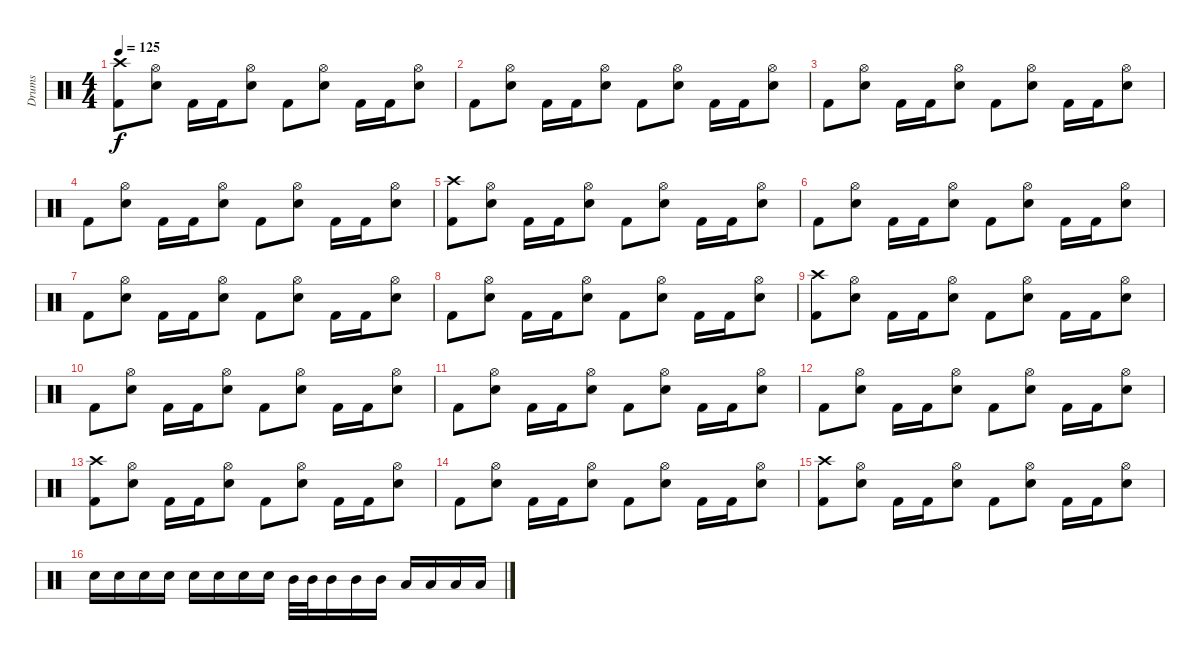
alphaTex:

\track ("Drums" "Drums") {instrument percussion}
\staff {score}
\articulation defaults
\ts (4 4)
\tempo 125
\clef neutral
\ks c
("Crash high (hit)" "Kick (hit) 2").8{dy f} ("Hi-Hat (open)" "Electric Snare (hit)").8 "Kick (hit) 2".16 "Kick (hit) 2".16 ("Hi-Hat (open)" "Electric Snare (hit)").8 "Kick (hit) 2".8 ("Hi-Hat (open)" "Electric Snare (hit)").8 "Kick (hit) 2".16 "Kick (hit) 2".16 ("Hi-Hat (open)" "Electric Snare (hit)").8 |
"Kick (hit) 2".8 ("Hi-Hat (open)" "Electric Snare (hit)").8 "Kick (hit) 2".16 "Kick (hit) 2".16 ("Hi-Hat (open)" "Electric Snare (hit)").8 "Kick (hit) 2".8 ("Hi-Hat (open)" "Electric Snare (hit)").8 "Kick (hit) 2".16 "Kick (hit) 2".16 ("Hi-Hat (open)" "Electric Snare (hit)").8 |
"Kick (hit) 2".8 ("Hi-Hat (open)" "Electric Snare (hit)").8 "Kick (hit) 2".16 "Kick (hit) 2".16 ("Hi-Hat (open)" "Electric Snare (hit)").8 "Kick (hit) 2".8 ("Hi-Hat (open)" "Electric Snare (hit)").8 "Kick (hit) 2".16 "Kick (hit) 2".16 ("Hi-Hat (open)" "Electric Snare (hit)").8 |
"Kick (hit) 2".8 ("Hi-Hat (open)" "Electric Snare (hit)").8 "Kick (hit) 2".16 "Kick (hit) 2".16 ("Hi-Hat (open)" "Electric Snare (hit)").8 "Kick (hit) 2".8 ("Hi-Hat (open)" "Electric Snare (hit)").8 "Kick (hit) 2".16 "Kick (hit) 2".16 ("Hi-Hat (open)" "Electric Snare (hit)").8 |
("Crash high (hit)" "Kick (hit) 2").8 ("Hi-Hat (open)" "Electric Snare (hit)").8 "Kick (hit) 2".16 "Kick (hit) 2".16 ("Hi-Hat (open)" "Electric Snare (hit)").8 "Kick (hit) 2".8 ("Hi-Hat (open)" "Electric Snare (hit)").8 "Kick (hit) 2".16 "Kick (hit) 2".16 ("Hi-Hat (open)" "Electric Snare (hit)").8 |
"Kick (hit) 2".8 ("Hi-Hat (open)" "Electric Snare (hit)").8 "Kick (hit) 2".16 "Kick (hit) 2".16 ("Hi-Hat (open)" "Electric Snare (hit)").8 "Kick (hit) 2".8 ("Hi-Hat (open)" "Electric Snare (hit)").8 "Kick (hit) 2".16 "Kick (hit) 2".16 ("Hi-Hat (open)" "Electric Snare (hit)").8 |
"Kick (hit) 2".8 ("Hi-Hat (open)" "Electric Snare (hit)").8 "Kick (hit) 2".16 "Kick (hit) 2".16 ("Hi-Hat (open)" "Electric Snare (hit)").8 "Kick (hit) 2".8 ("Hi-Hat (open)" "Electric Snare (hit)").8 "Kick (hit) 2".16 "Kick (hit) 2".16 ("Hi-Hat (open)" "Electric Snare (hit)").8 |
"Kick (hit) 2".8 ("Hi-Hat (open)" "Electric Snare (hit)").8 "Kick (hit) 2".16 "Kick (hit) 2".16 ("Hi-Hat (open)" "Electric Snare (hit)").8 "Kick (hit) 2".8 ("Hi-Hat (open)" "Electric Snare (hit)").8 "Kick (hit) 2".16 "Kick (hit) 2".16 ("Hi-Hat (open)" "Electric Snare (hit)").8 |
("Crash high (hit)" "Kick (hit) 2").8 ("Hi-Hat (open)" "Electric Snare (hit)").8 "Kick (hit) 2".16 "Kick (hit) 2".16 ("Hi-Hat (open)" "Electric Snare (hit)").8 "Kick (hit) 2".8 ("Hi-Hat (open)" "Electric Snare (hit)").8 "Kick (hit) 2".16 "Kick (hit) 2".16 ("Hi-Hat (open)" "Electric Snare (hit)").8 |
"Kick (hit) 2".8 ("Hi-Hat (open)" "Electric Snare (hit)").8 "Kick (hit) 2".16 "Kick (hit) 2".16 ("Hi-Hat (open)" "Electric Snare (hit)").8 "Kick (hit) 2".8 ("Hi-Hat (open)" "Electric Snare (hit)").8 "Kick (hit) 2".16 "Kick (hit) 2".16 ("Hi-Hat (open)" "Electric Snare (hit)").8 |
"Kick (hit) 2".8 ("Hi-Hat (open)" "Electric Snare (hit)").8 "Kick (hit) 2".16 "Kick (hit) 2".16 ("Hi-Hat (open)" "Electric Snare (hit)").8 "Kick (hit) 2".8 ("Hi-Hat (open)" "Electric Snare (hit)").8 "Kick (hit) 2".16 "Kick (hit) 2".16 ("Hi-Hat (open)" "Electric Snare (hit)").8 |
"Kick (hit) 2".8 ("Hi-Hat (open)" "Electric Snare (hit)").8 "Kick (hit) 2".16 "Kick (hit) 2".16 ("Hi-Hat (open)" "Electric Snare (hit)").8 "Kick (hit) 2".8 ("Hi-Hat (open)" "Electric Snare (hit)").8 "Kick (hit) 2".16 "Kick (hit) 2".16 ("Hi-Hat (open)" "Electric Snare (hit)").8 |
("Crash high (hit)" "Kick (hit) 2").8 ("Hi-Hat (open)" "Electric Snare (hit)").8 "Kick (hit) 2".16 "Kick (hit) 2".16 ("Hi-Hat (open)" "Electric Snare (hit)").8 "Kick (hit) 2".8 ("Hi-Hat (open)" "Electric Snare (hit)").8 "Kick (hit) 2".16 "Kick (hit) 2".16 ("Hi-Hat (open)" "Electric Snare (hit)").8 |
"Kick (hit) 2".8 ("Hi-Hat (open)" "Electric Snare (hit)").8 "Kick (hit) 2".16 "Kick (hit) 2".16 ("Hi-Hat (open)" "Electric Snare (hit)").8 "Kick (hit) 2".8 ("Hi-Hat (open)" "Electric Snare (hit)").8 "Kick (hit) 2".16 "Kick (hit) 2".16 ("Hi-Hat (open)" "Electric Snare (hit)").8 |
("Crash high (hit)" "Kick (hit) 2").8 ("Hi-Hat (open)" "Electric Snare (hit)").8 "Kick (hit) 2".16 "Kick (hit) 2".16 ("Hi-Hat (open)" "Electric Snare (hit)").8 "Kick (hit) 2".8 ("Hi-Hat (open)" "Electric Snare (hit)").8 "Kick (hit) 2".16 "Kick (hit) 2".16 ("Hi-Hat (open)" "Electric Snare (hit)").8 |
"Snare (hit) 2".16 "Snare (hit) 2".16 "Snare (hit) 2".16 "Snare (hit) 2".16 "Snare (hit) 2".16 "Snare (hit) 2".16 "Snare (hit) 2".16 "Snare (hit) 2".16 "Mid Tom (hit)".32 "Mid Tom (hit)".32 "Mid Tom (hit)".16 "Mid Tom (hit)".16 "Mid Tom (hit)".16 "Low Tom (hit)".16 "Low Tom (hit)".16 "Low Tom (hit)".16 "Low Tom (hit)".16
